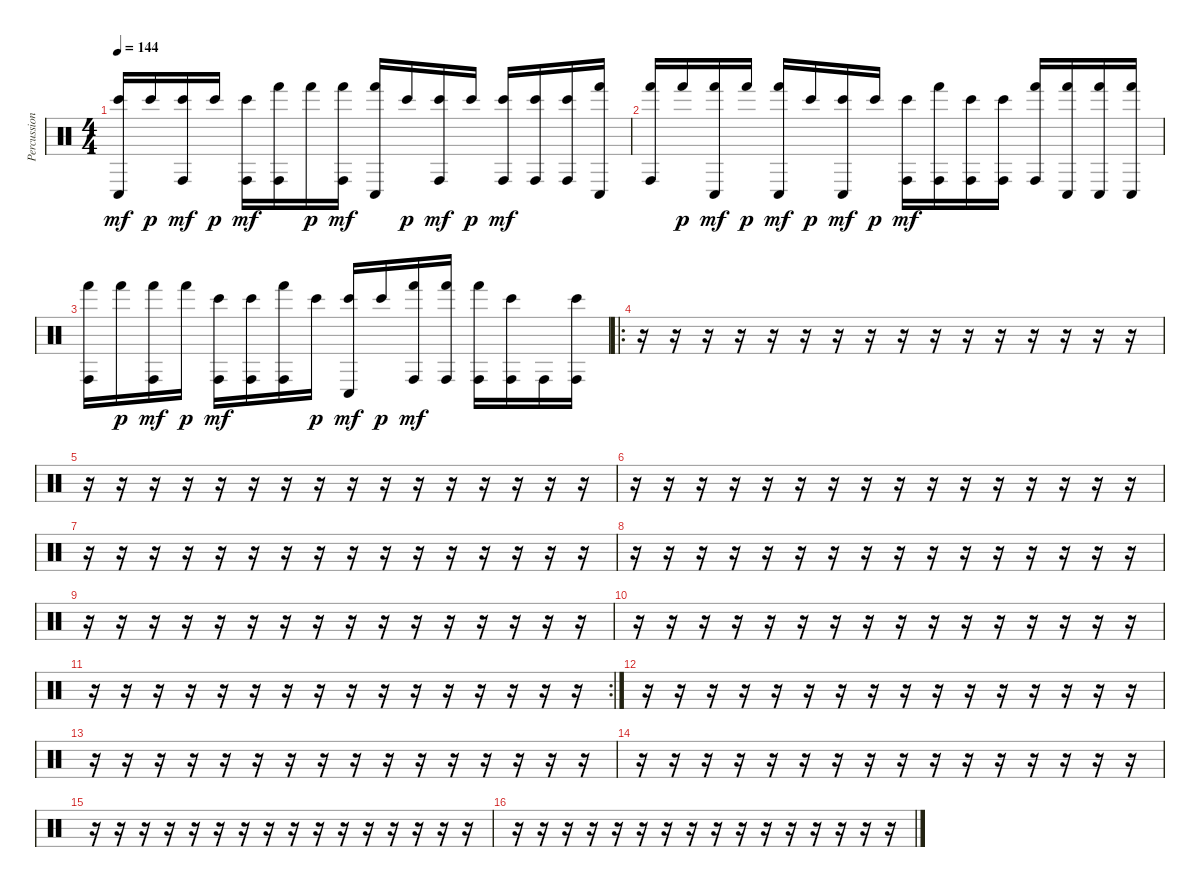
\track ("Percussions" "Percussion") {instrument percussion}
\staff {score}
\articulation defaults
\ts (4 4)
\tempo 144
\clef neutral
\ks c
("Bongo High (hit)" "Conga low (hit)").16{dy mf} "Bongo High (hit)".16{dy p} ("Bongo High (hit)" "Conga high (hit)").16{dy mf} "Bongo High (hit)".16{dy p} ("Bongo High (hit)" "Conga high (hit)").16{dy mf} ("Hand (hit)" "Conga high (hit)").16 "Hand (hit)".16{dy p} ("Hand (hit)" "Conga high (hit)").16{dy mf} ("Hand (hit)" "Conga low (hit)").16 "Bongo High (hit)".16{dy p} ("Bongo High (hit)" "Conga high (hit)").16{dy mf} "Bongo High (hit)".16{dy p} ("Bongo High (hit)" "Conga high (hit)").16{dy mf} ("Bongo High (hit)" "Conga high (hit)").16 ("Bongo High (hit)" "Conga high (hit)").16 ("Hand (hit)" "Conga low (hit)").16 |
("Hand (hit)" "Conga high (hit)").16 "Hand (hit)".16{dy p} ("Hand (hit)" "Conga low (hit)").16{dy mf} "Hand (hit)".16{dy p} ("Hand (hit)" "Conga low (hit)").16{dy mf} "Bongo High (hit)".16{dy p} ("Bongo High (hit)" "Conga low (hit)").16{dy mf} "Bongo High (hit)".16{dy p} ("Bongo High (hit)" "Conga high (hit)").16{dy mf} ("Hand (hit)" "Conga high (hit)").16 ("Bongo High (hit)" "Conga high (hit)").16 ("Bongo High (hit)" "Conga high (hit)").16 ("Hand (hit)" "Conga high (hit)").16 ("Hand (hit)" "Conga low (hit)").16 ("Hand (hit)" "Conga low (hit)").16 ("Hand (hit)" "Conga low (hit)").16 |
("Hand (hit)" "Conga high (hit)").16 "Hand (hit)".16{dy p} ("Hand (hit)" "Conga high (hit)").16{dy mf} "Hand (hit)".16{dy p} ("Bongo High (hit)" "Conga high (hit)").16{dy mf} ("Bongo High (hit)" "Conga high (hit)").16 ("Hand (hit)" "Conga high (hit)").16 "Bongo High (hit)".16{dy p} ("Bongo High (hit)" "Conga low (hit)").16{dy mf} "Bongo High (hit)".16{dy p} ("Hand (hit)" "Conga high (hit)").16{dy mf} ("Hand (hit)" "Conga high (hit)").16 ("Hand (hit)" "Conga high (hit)").16 ("Bongo High (hit)" "Conga high (hit)").16 "Conga high (hit)".16 ("Bongo High (hit)" "Conga high (hit)").16 |
\ro
r.16 r.16 r.16 r.16 r.16 r.16 r.16 r.16 r.16 r.16 r.16 r.16 r.16 r.16 r.16 r.16 |
r.16 r.16 r.16 r.16 r.16 r.16 r.16 r.16 r.16 r.16 r.16 r.16 r.16 r.16 r.16 r.16 |
r.16 r.16 r.16 r.16 r.16 r.16 r.16 r.16 r.16 r.16 r.16 r.16 r.16 r.16 r.16 r.16 |
r.16 r.16 r.16 r.16 r.16 r.16 r.16 r.16 r.16 r.16 r.16 r.16 r.16 r.16 r.16 r.16 |
r.16 r.16 r.16 r.16 r.16 r.16 r.16 r.16 r.16 r.16 r.16 r.16 r.16 r.16 r.16 r.16 |
r.16 r.16 r.16 r.16 r.16 r.16 r.16 r.16 r.16 r.16 r.16 r.16 r.16 r.16 r.16 r.16 |
r.16 r.16 r.16 r.16 r.16 r.16 r.16 r.16 r.16 r.16 r.16 r.16 r.16 r.16 r.16 r.16 |
\rc 2
r.16 r.16 r.16 r.16 r.16 r.16 r.16 r.16 r.16 r.16 r.16 r.16 r.16 r.16 r.16 r.16 |
r.16 r.16 r.16 r.16 r.16 r.16 r.16 r.16 r.16 r.16 r.16 r.16 r.16 r.16 r.16 r.16 |
r.16 r.16 r.16 r.16 r.16 r.16 r.16 r.16 r.16 r.16 r.16 r.16 r.16 r.16 r.16 r.16 |
r.16 r.16 r.16 r.16 r.16 r.16 r.16 r.16 r.16 r.16 r.16 r.16 r.16 r.16 r.16 r.16 |
r.16 r.16 r.16 r.16 r.16 r.16 r.16 r.16 r.16 r.16 r.16 r.16 r.16 r.16 r.16 r.16 |
r.16 r.16 r.16 r.16 r.16 r.16 r.16 r.16 r.16 r.16 r.16 r.16 r.16 r.16 r.16 r.16
